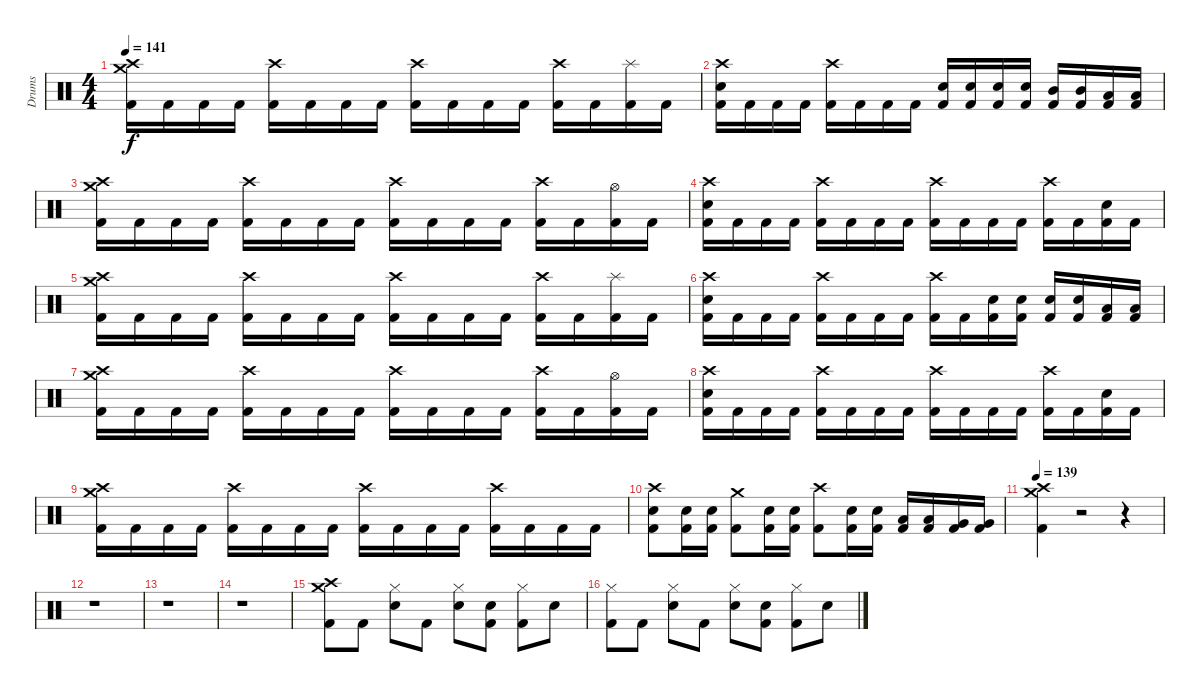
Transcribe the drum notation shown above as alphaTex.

\track ("Drums" "Drums") {solo instrument percussion}
\staff {score}
\articulation defaults
\ts (4 4)
\tempo 141
\clef neutral
\ks c
("Crash high (hit)" "Crash medium (hit)" "Kick (hit) 2").16{dy f} "Kick (hit) 2".16 "Kick (hit) 2".16 "Kick (hit) 2".16 ("Crash high (hit)" "Kick (hit) 2").16 "Kick (hit) 2".16 "Kick (hit) 2".16 "Kick (hit) 2".16 ("Crash high (hit)" "Kick (hit) 2").16 "Kick (hit) 2".16 "Kick (hit) 2".16 "Kick (hit) 2".16 ("Crash high (hit)" "Kick (hit) 2").16 "Kick (hit) 2".16 ("Splash (hit)" "Kick (hit) 2").16 "Kick (hit) 2".16 |
("Crash high (hit)" "Electric Snare (hit)" "Kick (hit) 2").16 "Kick (hit) 2".16 "Kick (hit) 2".16 "Kick (hit) 2".16 ("Crash high (hit)" "Kick (hit) 2").16 "Kick (hit) 2".16 "Kick (hit) 2".16 "Kick (hit) 2".16 ("Electric Snare (hit)" "Kick (hit) 2").16 ("Electric Snare (hit)" "Kick (hit) 2").16 ("Electric Snare (hit)" "Kick (hit) 2").16 ("Electric Snare (hit)" "Kick (hit) 2").16 ("Mid Tom (hit)" "Kick (hit) 2").16 ("Mid Tom (hit)" "Kick (hit) 2").16 ("Low Tom (hit)" "Kick (hit) 2").16 ("Low Tom (hit)" "Kick (hit) 2").16 |
("Crash high (hit)" "Crash medium (hit)" "Kick (hit) 2").16 "Kick (hit) 2".16 "Kick (hit) 2".16 "Kick (hit) 2".16 ("Crash high (hit)" "Kick (hit) 2").16 "Kick (hit) 2".16 "Kick (hit) 2".16 "Kick (hit) 2".16 ("Crash high (hit)" "Kick (hit) 2").16 "Kick (hit) 2".16 "Kick (hit) 2".16 "Kick (hit) 2".16 ("Crash high (hit)" "Kick (hit) 2").16 "Kick (hit) 2".16 ("Hi-Hat (open)" "Kick (hit) 2").16 "Kick (hit) 2".16 |
("Crash high (hit)" "Electric Snare (hit)" "Kick (hit) 2").16 "Kick (hit) 2".16 "Kick (hit) 2".16 "Kick (hit) 2".16 ("Crash high (hit)" "Kick (hit) 2").16 "Kick (hit) 2".16 "Kick (hit) 2".16 "Kick (hit) 2".16 ("Crash high (hit)" "Kick (hit) 2").16 "Kick (hit) 2".16 "Kick (hit) 2".16 "Kick (hit) 2".16 ("Crash high (hit)" "Kick (hit) 2").16 "Kick (hit) 2".16 ("Electric Snare (hit)" "Kick (hit) 2").16 "Kick (hit) 2".16 |
("Crash high (hit)" "Crash medium (hit)" "Kick (hit) 2").16 "Kick (hit) 2".16 "Kick (hit) 2".16 "Kick (hit) 2".16 ("Crash high (hit)" "Kick (hit) 2").16 "Kick (hit) 2".16 "Kick (hit) 2".16 "Kick (hit) 2".16 ("Crash high (hit)" "Kick (hit) 2").16 "Kick (hit) 2".16 "Kick (hit) 2".16 "Kick (hit) 2".16 ("Crash high (hit)" "Kick (hit) 2").16 "Kick (hit) 2".16 ("Splash (hit)" "Kick (hit) 2").16 "Kick (hit) 2".16 |
("Crash high (hit)" "Electric Snare (hit)" "Kick (hit) 2").16 "Kick (hit) 2".16 "Kick (hit) 2".16 "Kick (hit) 2".16 ("Crash high (hit)" "Kick (hit) 2").16 "Kick (hit) 2".16 "Kick (hit) 2".16 "Kick (hit) 2".16 ("Crash high (hit)" "Kick (hit) 2").16 "Kick (hit) 2".16 ("Electric Snare (hit)" "Kick (hit) 2").16 ("Electric Snare (hit)" "Kick (hit) 2").16 ("Electric Snare (hit)" "Kick (hit) 2").16 ("Electric Snare (hit)" "Kick (hit) 2").16 ("Low Tom (hit)" "Kick (hit) 2").16 ("Low Tom (hit)" "Kick (hit) 2").16 |
("Crash high (hit)" "Crash medium (hit)" "Kick (hit) 2").16 "Kick (hit) 2".16 "Kick (hit) 2".16 "Kick (hit) 2".16 ("Crash high (hit)" "Kick (hit) 2").16 "Kick (hit) 2".16 "Kick (hit) 2".16 "Kick (hit) 2".16 ("Crash high (hit)" "Kick (hit) 2").16 "Kick (hit) 2".16 "Kick (hit) 2".16 "Kick (hit) 2".16 ("Crash high (hit)" "Kick (hit) 2").16 "Kick (hit) 2".16 ("Hi-Hat (open)" "Kick (hit) 2").16 "Kick (hit) 2".16 |
("Crash high (hit)" "Electric Snare (hit)" "Kick (hit) 2").16 "Kick (hit) 2".16 "Kick (hit) 2".16 "Kick (hit) 2".16 ("Crash high (hit)" "Kick (hit) 2").16 "Kick (hit) 2".16 "Kick (hit) 2".16 "Kick (hit) 2".16 ("Crash high (hit)" "Kick (hit) 2").16 "Kick (hit) 2".16 "Kick (hit) 2".16 "Kick (hit) 2".16 ("Crash high (hit)" "Kick (hit) 2").16 "Kick (hit) 2".16 ("Electric Snare (hit)" "Kick (hit) 2").16 "Kick (hit) 2".16 |
("Crash high (hit)" "Crash medium (hit)" "Kick (hit) 2").16 "Kick (hit) 2".16 "Kick (hit) 2".16 "Kick (hit) 2".16 ("Crash high (hit)" "Kick (hit) 2").16 "Kick (hit) 2".16 "Kick (hit) 2".16 "Kick (hit) 2".16 ("Crash high (hit)" "Kick (hit) 2").16 "Kick (hit) 2".16 "Kick (hit) 2".16 "Kick (hit) 2".16 ("Crash high (hit)" "Kick (hit) 2").16 "Kick (hit) 2".16 "Kick (hit) 2".16 "Kick (hit) 2".16 |
("Crash high (hit)" "Electric Snare (hit)" "Kick (hit) 2").8 ("Electric Snare (hit)" "Kick (hit) 2").16 ("Electric Snare (hit)" "Kick (hit) 2").16 ("Crash medium (hit)" "Kick (hit) 2").8 ("Electric Snare (hit)" "Kick (hit) 2").16 ("Electric Snare (hit)" "Kick (hit) 2").16 ("Crash high (hit)" "Kick (hit) 2").8 ("Electric Snare (hit)" "Kick (hit) 2").16 ("Electric Snare (hit)" "Kick (hit) 2").16 ("Low Tom (hit)" "Kick (hit) 2").16 ("Low Tom (hit)" "Kick (hit) 2").16 ("Very Low Tom (hit)" "Kick (hit) 2").16 ("Very Low Tom (hit)" "Kick (hit) 2").16 |
\tempo 139
("Crash high (hit)" "Crash medium (hit)" "Kick (hit) 2").4 r.2 r.4 |
r.1 |
r.1 |
r.1 |
("Crash high (hit)" "Crash medium (hit)" "Kick (hit) 2").8 "Kick (hit) 2".8 ("Hi-Hat (closed)" "Electric Snare (hit)").8 "Kick (hit) 2".8 ("Hi-Hat (closed)" "Electric Snare (hit)").8 ("Electric Snare (hit)" "Kick (hit) 2").8 ("Hi-Hat (closed)" "Kick (hit) 2").8 "Electric Snare (hit)".8 |
("Hi-Hat (closed)" "Kick (hit) 2").8 "Kick (hit) 2".8 ("Hi-Hat (closed)" "Electric Snare (hit)").8 "Kick (hit) 2".8 ("Hi-Hat (closed)" "Electric Snare (hit)").8 ("Electric Snare (hit)" "Kick (hit) 2").8 ("Hi-Hat (closed)" "Kick (hit) 2").8 "Electric Snare (hit)".8
